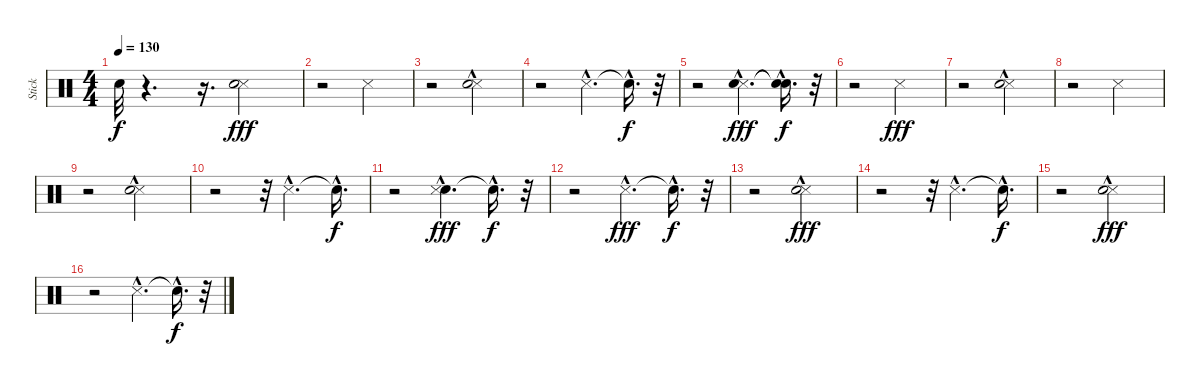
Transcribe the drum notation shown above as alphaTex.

\track ("Stick" "Stick") {instrument percussion}
\staff {score}
\articulation defaults
\ts (4 4)
\tempo 130
\clef neutral
\ks c "Snare (hit)"{t}.32{dy f}
r.4{d} r.16{d} ("Snare (side stick) 3" "Snare (hit) 2").2{dy fff} |
r.2 "Snare (side stick) 3".2 |
r.2 ("Snare (side stick) 3" "Snare (hit) 2"{hac}).2 |
r.2 "Snare (side stick) 3"{hac}.4{d} "Snare (hit)"{hac t}.16{d dy f} r.32 |
r.2 ("Snare (side stick) 3"{hac} "Snare (hit) 2"{hac}).4{d dy fff} ("Snare (hit)"{t} "Snare (hit)"{hac t}).16{d dy f} r.32 |
r.2 "Snare (side stick) 3".2{dy fff} |
r.2 ("Snare (side stick) 3" "Snare (hit) 2"{hac}).2 |
r.2 "Snare (side stick) 3".2 |
r.2 ("Snare (side stick) 3" "Snare (hit) 2"{hac}).2 |
r.2 r.32 "Snare (side stick) 3"{hac}.4{d} "Snare (hit)"{hac t}.16{d dy f} |
r.2 ("Snare (hit) 2" "Snare (side stick) 3"{hac}).4{d dy fff} "Snare (hit)"{hac t}.16{d dy f} r.32 |
r.2 "Snare (side stick) 3"{hac}.4{d dy fff} "Snare (hit)"{hac t}.16{d dy f} r.32 |
r.2 ("Snare (side stick) 3" "Snare (hit) 2"{hac}).2{dy fff} |
r.2 r.32 "Snare (side stick) 3"{hac}.4{d} "Snare (hit)"{hac t}.16{d dy f} |
r.2 ("Snare (side stick) 3" "Snare (hit) 2"{hac}).2{dy fff} |
r.2 "Snare (side stick) 3"{hac}.4{d} "Snare (hit)"{hac t}.16{d dy f} r.32
